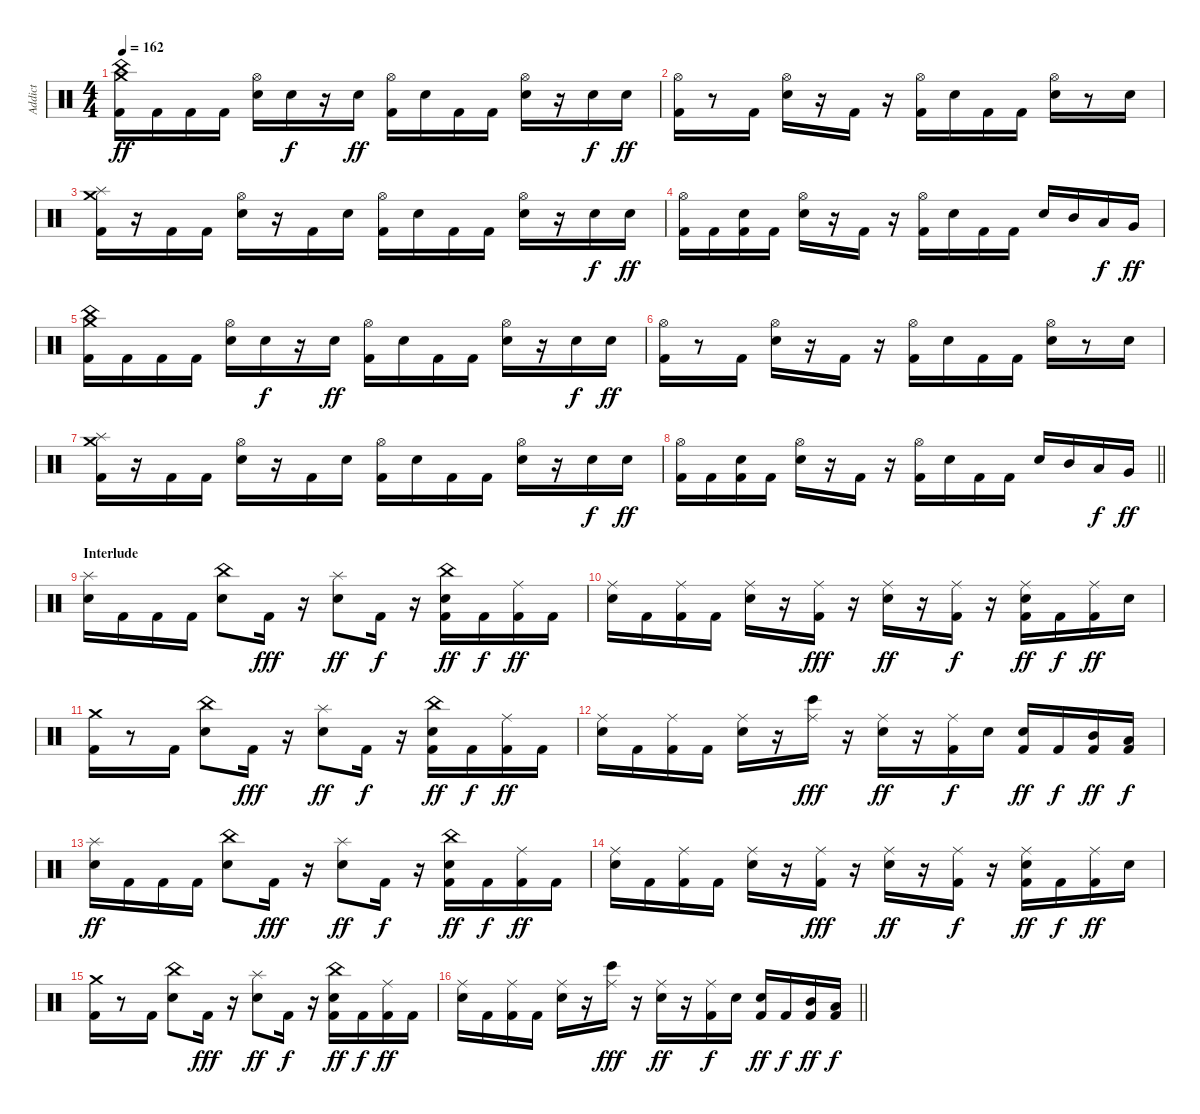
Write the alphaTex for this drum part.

\track ("Addict" "Addict") {instrument percussion}
\staff {score}
\articulation defaults
\ts (4 4)
\tempo 162
\clef neutral
\ks c
("Kick (hit) 2" "Crash medium (hit)" "China (hit)").16{dy ff} "Kick (hit) 2".16 "Kick (hit) 2".16 "Kick (hit) 2".16 ("Snare (hit) 2" "Hi-Hat (open)").16 "Snare (hit) 2".16{dy f} r.16 "Snare (hit) 2".16{dy ff} ("Kick (hit) 2" "Hi-Hat (open)").16 "Snare (hit) 2".16 "Kick (hit) 2".16 "Kick (hit) 2".16 ("Snare (hit) 2" "Hi-Hat (open)").16 r.16 "Snare (hit) 2".16{dy f} "Snare (hit) 2".16{dy ff} |
("Kick (hit) 2" "Hi-Hat (open)").16 r.8 "Kick (hit) 2".16 ("Snare (hit) 2" "Hi-Hat (open)").16 r.16 "Kick (hit) 2".16 r.16 ("Kick (hit) 2" "Hi-Hat (open)").16 "Snare (hit) 2".16 "Kick (hit) 2".16 "Kick (hit) 2".16 ("Snare (hit) 2" "Hi-Hat (open)").16 r.8 "Snare (hit) 2".16 |
("Kick (hit) 2" "Crash medium (hit)" "Splash (hit)").16 r.16 "Kick (hit) 2".16 "Kick (hit) 2".16 ("Snare (hit) 2" "Hi-Hat (open)").16 r.16 "Kick (hit) 2".16 "Snare (hit) 2".16 ("Kick (hit) 2" "Hi-Hat (open)").16 "Snare (hit) 2".16 "Kick (hit) 2".16 "Kick (hit) 2".16 ("Snare (hit) 2" "Hi-Hat (open)").16 r.16 "Snare (hit) 2".16{dy f} "Snare (hit) 2".16{dy ff} |
("Kick (hit) 2" "Hi-Hat (open)").16 "Kick (hit) 2".16 ("Kick (hit) 2" "Snare (hit) 2").16 "Kick (hit) 2".16 ("Snare (hit) 2" "Hi-Hat (open)").16 r.16 "Kick (hit) 2".16 r.16 ("Kick (hit) 2" "Hi-Hat (open)").16 "Snare (hit) 2".16 "Kick (hit) 2".16 "Kick (hit) 2".16 "Snare (hit) 2".16 "Mid Tom (hit)".16 "Low Tom (hit)".16{dy f} "Very Low Tom (hit)".16{dy ff} |
("Kick (hit) 2" "Crash medium (hit)" "China (hit)").16 "Kick (hit) 2".16 "Kick (hit) 2".16 "Kick (hit) 2".16 ("Snare (hit) 2" "Hi-Hat (open)").16 "Snare (hit) 2".16{dy f} r.16 "Snare (hit) 2".16{dy ff} ("Kick (hit) 2" "Hi-Hat (open)").16 "Snare (hit) 2".16 "Kick (hit) 2".16 "Kick (hit) 2".16 ("Snare (hit) 2" "Hi-Hat (open)").16 r.16 "Snare (hit) 2".16{dy f} "Snare (hit) 2".16{dy ff} |
("Kick (hit) 2" "Hi-Hat (open)").16 r.8 "Kick (hit) 2".16 ("Snare (hit) 2" "Hi-Hat (open)").16 r.16 "Kick (hit) 2".16 r.16 ("Kick (hit) 2" "Hi-Hat (open)").16 "Snare (hit) 2".16 "Kick (hit) 2".16 "Kick (hit) 2".16 ("Snare (hit) 2" "Hi-Hat (open)").16 r.8 "Snare (hit) 2".16 |
("Kick (hit) 2" "Crash medium (hit)" "Splash (hit)").16 r.16 "Kick (hit) 2".16 "Kick (hit) 2".16 ("Snare (hit) 2" "Hi-Hat (open)").16 r.16 "Kick (hit) 2".16 "Snare (hit) 2".16 ("Kick (hit) 2" "Hi-Hat (open)").16 "Snare (hit) 2".16 "Kick (hit) 2".16 "Kick (hit) 2".16 ("Snare (hit) 2" "Hi-Hat (open)").16 r.16 "Snare (hit) 2".16{dy f} "Snare (hit) 2".16{dy ff} |
\barLineRight lightlight
("Kick (hit) 2" "Hi-Hat (open)").16 "Kick (hit) 2".16 ("Kick (hit) 2" "Snare (hit) 2").16 "Kick (hit) 2".16 ("Snare (hit) 2" "Hi-Hat (open)").16 r.16 "Kick (hit) 2".16 r.16 ("Kick (hit) 2" "Hi-Hat (open)").16 "Snare (hit) 2".16 "Kick (hit) 2".16 "Kick (hit) 2".16 "Snare (hit) 2".16 "Mid Tom (hit)".16 "Low Tom (hit)".16{dy f} "Very Low Tom (hit)".16{dy ff} |
\section ("" "Interlude")
("Snare (hit) 2" "Splash (hit)").16 "Kick (hit) 2".16 "Kick (hit) 2".16 "Kick (hit) 2".16 ("Snare (hit) 2" "China (hit)").8 "Kick (hit) 2".16{dy fff} r.16 ("Snare (hit) 2" "Splash (hit)").8{dy ff} "Kick (hit) 2".16{dy f} r.16 ("Kick (hit) 2" "Snare (hit) 2" "China (hit)").16{dy ff} "Kick (hit) 2".16{dy f} ("Kick (hit) 2" "Ride (middle)").16{dy ff} "Kick (hit) 2".16 |
("Snare (hit) 2" "Ride (middle)").16 "Kick (hit) 2".16 ("Kick (hit) 2" "Ride (middle)").16 "Kick (hit) 2".16 ("Snare (hit) 2" "Ride (middle)").16 r.16 ("Ride (middle)" "Kick (hit) 2").16{dy fff} r.16 ("Snare (hit) 2" "Ride (middle)").16{dy ff} r.16 ("Kick (hit) 2" "Ride (middle)").16{dy f} r.16 ("Kick (hit) 2" "Snare (hit) 2" "Ride (middle)").16{dy ff} "Kick (hit) 2".16{dy f} ("Kick (hit) 2" "Ride (middle)").16{dy ff} "Snare (hit) 2".16 |
("Kick (hit) 2" "Crash medium (hit)").16 r.8 "Kick (hit) 2".16 ("Snare (hit) 2" "China (hit)").8 "Kick (hit) 2".16{dy fff} r.16 ("Snare (hit) 2" "Splash (hit)").8{dy ff} "Kick (hit) 2".16{dy f} r.16 ("Kick (hit) 2" "Snare (hit) 2" "China (hit)").16{dy ff} "Kick (hit) 2".16{dy f} ("Kick (hit) 2" "Ride (middle)").16{dy ff} "Kick (hit) 2".16 |
("Snare (hit) 2" "Ride (middle)").16 "Kick (hit) 2".16 ("Kick (hit) 2" "Ride (middle)").16 "Kick (hit) 2".16 ("Snare (hit) 2" "Ride (middle)").16 r.16 ("Bongo High (hit)" "Ride (middle)").16{dy fff} r.16 ("Snare (hit) 2" "Ride (middle)").16{dy ff} r.16 ("Kick (hit) 2" "Ride (middle)").16{dy f} "Snare (hit) 2".16 ("Kick (hit) 2" "Snare (hit) 2").16{dy ff} "Kick (hit) 2".16{dy f} ("Kick (hit) 2" "Mid Tom (hit)").16{dy ff} ("Low Tom (hit)" "Kick (hit) 2").16{dy f} |
("Snare (hit) 2" "Splash (hit)").16{dy ff} "Kick (hit) 2".16 "Kick (hit) 2".16 "Kick (hit) 2".16 ("Snare (hit) 2" "China (hit)").8 "Kick (hit) 2".16{dy fff} r.16 ("Snare (hit) 2" "Splash (hit)").8{dy ff} "Kick (hit) 2".16{dy f} r.16 ("Kick (hit) 2" "Snare (hit) 2" "China (hit)").16{dy ff} "Kick (hit) 2".16{dy f} ("Kick (hit) 2" "Ride (middle)").16{dy ff} "Kick (hit) 2".16 |
("Snare (hit) 2" "Ride (middle)").16 "Kick (hit) 2".16 ("Kick (hit) 2" "Ride (middle)").16 "Kick (hit) 2".16 ("Snare (hit) 2" "Ride (middle)").16 r.16 ("Ride (middle)" "Kick (hit) 2").16{dy fff} r.16 ("Snare (hit) 2" "Ride (middle)").16{dy ff} r.16 ("Kick (hit) 2" "Ride (middle)").16{dy f} r.16 ("Kick (hit) 2" "Snare (hit) 2" "Ride (middle)").16{dy ff} "Kick (hit) 2".16{dy f} ("Kick (hit) 2" "Ride (middle)").16{dy ff} "Snare (hit) 2".16 |
("Kick (hit) 2" "Crash medium (hit)").16 r.8 "Kick (hit) 2".16 ("Snare (hit) 2" "China (hit)").8 "Kick (hit) 2".16{dy fff} r.16 ("Snare (hit) 2" "Splash (hit)").8{dy ff} "Kick (hit) 2".16{dy f} r.16 ("Kick (hit) 2" "Snare (hit) 2" "China (hit)").16{dy ff} "Kick (hit) 2".16{dy f} ("Kick (hit) 2" "Ride (middle)").16{dy ff} "Kick (hit) 2".16 |
\barLineRight lightlight
("Snare (hit) 2" "Ride (middle)").16 "Kick (hit) 2".16 ("Kick (hit) 2" "Ride (middle)").16 "Kick (hit) 2".16 ("Snare (hit) 2" "Ride (middle)").16 r.16 ("Bongo High (hit)" "Ride (middle)").16{dy fff} r.16 ("Snare (hit) 2" "Ride (middle)").16{dy ff} r.16 ("Kick (hit) 2" "Ride (middle)").16{dy f} "Snare (hit) 2".16 ("Kick (hit) 2" "Snare (hit) 2").16{dy ff} "Kick (hit) 2".16{dy f} ("Kick (hit) 2" "Mid Tom (hit)").16{dy ff} ("Low Tom (hit)" "Kick (hit) 2").16{dy f}
